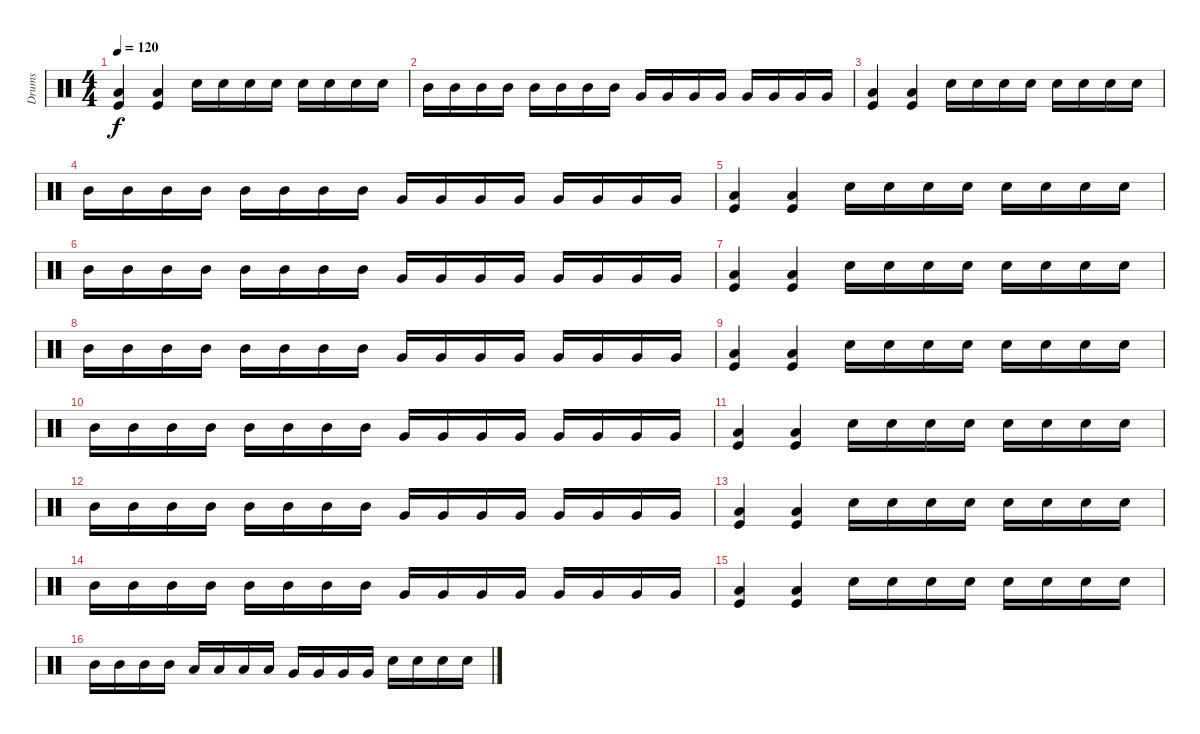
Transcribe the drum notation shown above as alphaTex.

\track ("Drums" "Drums") {instrument percussion}
\staff {score}
\articulation defaults
\ts (4 4)
\tempo 120
\clef neutral
\ks c
("Kick (hit)" "Low Floor Tom (hit)").4{dy f volume 8} ("Kick (hit)" "Low Floor Tom (hit)").4 "Electric Snare (hit)".16 "Electric Snare (hit)".16 "Electric Snare (hit)".16 "Electric Snare (hit)".16 "Electric Snare (hit)".16 "Electric Snare (hit)".16 "Electric Snare (hit)".16 "Electric Snare (hit)".16 |
"Mid Tom (hit)".16 "Mid Tom (hit)".16 "Mid Tom (hit)".16 "Mid Tom (hit)".16 "Mid Tom (hit)".16 "Mid Tom (hit)".16 "Mid Tom (hit)".16 "Mid Tom (hit)".16 "Very Low Tom (hit)".16 "Very Low Tom (hit)".16 "Very Low Tom (hit)".16 "Very Low Tom (hit)".16 "Very Low Tom (hit)".16 "Very Low Tom (hit)".16 "Very Low Tom (hit)".16 "Very Low Tom (hit)".16 |
("Kick (hit)" "Low Floor Tom (hit)").4{volume 10} ("Kick (hit)" "Low Floor Tom (hit)").4 "Electric Snare (hit)".16 "Electric Snare (hit)".16 "Electric Snare (hit)".16 "Electric Snare (hit)".16 "Electric Snare (hit)".16 "Electric Snare (hit)".16 "Electric Snare (hit)".16 "Electric Snare (hit)".16 |
"Mid Tom (hit)".16 "Mid Tom (hit)".16 "Mid Tom (hit)".16 "Mid Tom (hit)".16 "Mid Tom (hit)".16 "Mid Tom (hit)".16 "Mid Tom (hit)".16 "Mid Tom (hit)".16 "Very Low Tom (hit)".16 "Very Low Tom (hit)".16 "Very Low Tom (hit)".16 "Very Low Tom (hit)".16 "Very Low Tom (hit)".16 "Very Low Tom (hit)".16 "Very Low Tom (hit)".16 "Very Low Tom (hit)".16 |
("Kick (hit)" "Low Floor Tom (hit)").4{volume 12} ("Kick (hit)" "Low Floor Tom (hit)").4 "Electric Snare (hit)".16 "Electric Snare (hit)".16 "Electric Snare (hit)".16 "Electric Snare (hit)".16 "Electric Snare (hit)".16 "Electric Snare (hit)".16 "Electric Snare (hit)".16 "Electric Snare (hit)".16 |
"Mid Tom (hit)".16 "Mid Tom (hit)".16 "Mid Tom (hit)".16 "Mid Tom (hit)".16 "Mid Tom (hit)".16 "Mid Tom (hit)".16 "Mid Tom (hit)".16 "Mid Tom (hit)".16 "Very Low Tom (hit)".16 "Very Low Tom (hit)".16 "Very Low Tom (hit)".16 "Very Low Tom (hit)".16 "Very Low Tom (hit)".16 "Very Low Tom (hit)".16 "Very Low Tom (hit)".16 "Very Low Tom (hit)".16 |
("Kick (hit)" "Low Floor Tom (hit)").4 ("Kick (hit)" "Low Floor Tom (hit)").4 "Electric Snare (hit)".16 "Electric Snare (hit)".16 "Electric Snare (hit)".16 "Electric Snare (hit)".16 "Electric Snare (hit)".16 "Electric Snare (hit)".16 "Electric Snare (hit)".16 "Electric Snare (hit)".16 |
"Mid Tom (hit)".16 "Mid Tom (hit)".16 "Mid Tom (hit)".16 "Mid Tom (hit)".16 "Mid Tom (hit)".16 "Mid Tom (hit)".16 "Mid Tom (hit)".16 "Mid Tom (hit)".16 "Very Low Tom (hit)".16 "Very Low Tom (hit)".16 "Very Low Tom (hit)".16 "Very Low Tom (hit)".16 "Very Low Tom (hit)".16 "Very Low Tom (hit)".16 "Very Low Tom (hit)".16 "Very Low Tom (hit)".16 |
("Kick (hit)" "Low Floor Tom (hit)").4{volume 14} ("Kick (hit)" "Low Floor Tom (hit)").4 "Electric Snare (hit)".16 "Electric Snare (hit)".16 "Electric Snare (hit)".16 "Electric Snare (hit)".16 "Electric Snare (hit)".16 "Electric Snare (hit)".16 "Electric Snare (hit)".16 "Electric Snare (hit)".16 |
"Mid Tom (hit)".16 "Mid Tom (hit)".16 "Mid Tom (hit)".16 "Mid Tom (hit)".16 "Mid Tom (hit)".16 "Mid Tom (hit)".16 "Mid Tom (hit)".16 "Mid Tom (hit)".16 "Very Low Tom (hit)".16 "Very Low Tom (hit)".16 "Very Low Tom (hit)".16 "Very Low Tom (hit)".16 "Very Low Tom (hit)".16 "Very Low Tom (hit)".16 "Very Low Tom (hit)".16 "Very Low Tom (hit)".16 |
("Kick (hit)" "Low Floor Tom (hit)").4 ("Kick (hit)" "Low Floor Tom (hit)").4 "Electric Snare (hit)".16 "Electric Snare (hit)".16 "Electric Snare (hit)".16 "Electric Snare (hit)".16 "Electric Snare (hit)".16 "Electric Snare (hit)".16 "Electric Snare (hit)".16 "Electric Snare (hit)".16 |
"Mid Tom (hit)".16 "Mid Tom (hit)".16 "Mid Tom (hit)".16 "Mid Tom (hit)".16 "Mid Tom (hit)".16 "Mid Tom (hit)".16 "Mid Tom (hit)".16 "Mid Tom (hit)".16 "Very Low Tom (hit)".16 "Very Low Tom (hit)".16 "Very Low Tom (hit)".16 "Very Low Tom (hit)".16 "Very Low Tom (hit)".16 "Very Low Tom (hit)".16 "Very Low Tom (hit)".16 "Very Low Tom (hit)".16 |
("Kick (hit)" "Low Floor Tom (hit)").4{volume 16} ("Kick (hit)" "Low Floor Tom (hit)").4 "Electric Snare (hit)".16 "Electric Snare (hit)".16 "Electric Snare (hit)".16 "Electric Snare (hit)".16 "Electric Snare (hit)".16 "Electric Snare (hit)".16 "Electric Snare (hit)".16 "Electric Snare (hit)".16 |
"Mid Tom (hit)".16 "Mid Tom (hit)".16 "Mid Tom (hit)".16 "Mid Tom (hit)".16 "Mid Tom (hit)".16 "Mid Tom (hit)".16 "Mid Tom (hit)".16 "Mid Tom (hit)".16 "Very Low Tom (hit)".16 "Very Low Tom (hit)".16 "Very Low Tom (hit)".16 "Very Low Tom (hit)".16 "Very Low Tom (hit)".16 "Very Low Tom (hit)".16 "Very Low Tom (hit)".16 "Very Low Tom (hit)".16 |
("Kick (hit)" "Low Floor Tom (hit)").4 ("Kick (hit)" "Low Floor Tom (hit)").4 "Electric Snare (hit)".16 "Electric Snare (hit)".16 "Electric Snare (hit)".16 "Electric Snare (hit)".16 "Electric Snare (hit)".16 "Electric Snare (hit)".16 "Electric Snare (hit)".16 "Electric Snare (hit)".16 |
"Mid Tom (hit)".16 "Mid Tom (hit)".16 "Mid Tom (hit)".16 "Mid Tom (hit)".16 "Low Tom (hit)".16 "Low Tom (hit)".16 "Low Tom (hit)".16 "Low Tom (hit)".16 "Very Low Tom (hit)".16 "Very Low Tom (hit)".16 "Very Low Tom (hit)".16 "Very Low Tom (hit)".16 "Snare (hit) 2".16 "Snare (hit) 2".16 "Snare (hit) 2".16 "Snare (hit) 2".16
